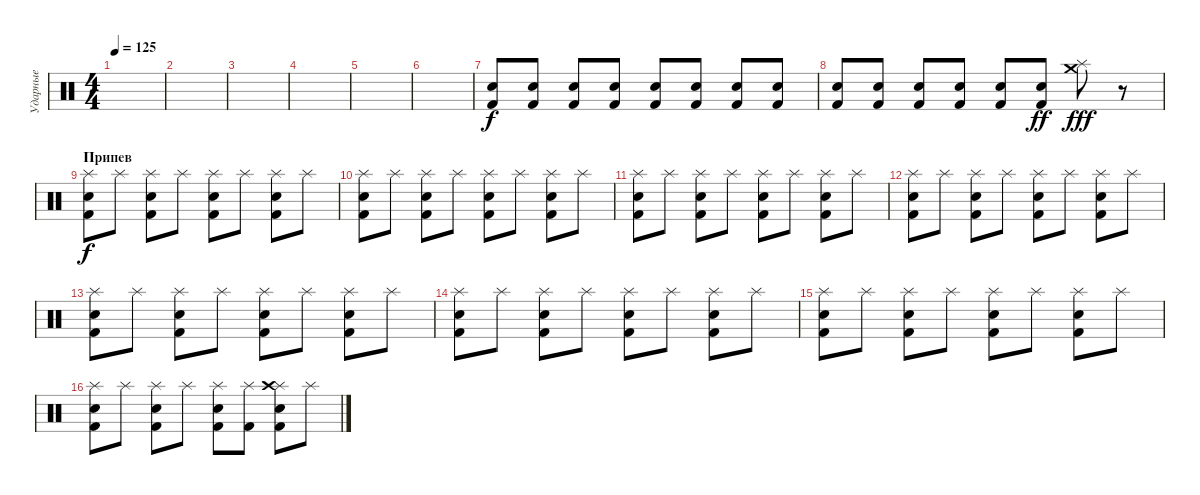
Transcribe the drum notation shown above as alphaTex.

\track ("Ударные" "Ударные") {instrument percussion}
\staff {score}
\articulation defaults
\ts (4 4)
\tempo 125
\clef neutral
\ks c
|
|
|
|
|
|
("Snare (hit) 2" "Kick (hit) 2").8{volume 16} ("Snare (hit) 2" "Kick (hit) 2").8 ("Snare (hit) 2" "Kick (hit) 2").8 ("Snare (hit) 2" "Kick (hit) 2").8 ("Snare (hit) 2" "Kick (hit) 2").8 ("Snare (hit) 2" "Kick (hit) 2").8 ("Snare (hit) 2" "Kick (hit) 2").8 ("Snare (hit) 2" "Kick (hit) 2").8 |
("Snare (hit) 2" "Kick (hit) 2").8 ("Snare (hit) 2" "Kick (hit) 2").8 ("Snare (hit) 2" "Kick (hit) 2").8 ("Snare (hit) 2" "Kick (hit) 2").8 ("Snare (hit) 2" "Kick (hit) 2").8 ("Snare (hit) 2" "Kick (hit) 2").8{dy ff} ("Crash medium (hit)" "Splash (hit)").8{dy fff} r.8 |
\section ("" "Припев")
("Snare (hit) 2" "Splash (hit)" "Kick (hit) 2").8{dy f} "Splash (hit)".8 ("Electric Snare (hit)" "Splash (hit)" "Kick (hit) 2").8 "Splash (hit)".8 ("Snare (hit) 2" "Splash (hit)" "Kick (hit) 2").8 "Splash (hit)".8 ("Electric Snare (hit)" "Splash (hit)" "Kick (hit) 2").8 "Splash (hit)".8 |
("Snare (hit) 2" "Splash (hit)" "Kick (hit) 2").8 "Splash (hit)".8 ("Electric Snare (hit)" "Splash (hit)" "Kick (hit) 2").8 "Splash (hit)".8 ("Snare (hit) 2" "Splash (hit)" "Kick (hit) 2").8 "Splash (hit)".8 ("Electric Snare (hit)" "Splash (hit)" "Kick (hit) 2").8 "Splash (hit)".8 |
("Snare (hit) 2" "Splash (hit)" "Kick (hit) 2").8 "Splash (hit)".8 ("Electric Snare (hit)" "Splash (hit)" "Kick (hit) 2").8 "Splash (hit)".8 ("Snare (hit) 2" "Splash (hit)" "Kick (hit) 2").8 "Splash (hit)".8 ("Electric Snare (hit)" "Splash (hit)" "Kick (hit) 2").8 "Splash (hit)".8 |
("Snare (hit) 2" "Splash (hit)" "Kick (hit) 2").8 "Splash (hit)".8 ("Electric Snare (hit)" "Splash (hit)" "Kick (hit) 2").8 "Splash (hit)".8 ("Snare (hit) 2" "Splash (hit)" "Kick (hit) 2").8 "Splash (hit)".8 ("Electric Snare (hit)" "Splash (hit)" "Kick (hit) 2").8 "Splash (hit)".8 |
("Snare (hit) 2" "Splash (hit)" "Kick (hit) 2").8 "Splash (hit)".8 ("Electric Snare (hit)" "Splash (hit)" "Kick (hit) 2").8 "Splash (hit)".8 ("Snare (hit) 2" "Splash (hit)" "Kick (hit) 2").8 "Splash (hit)".8 ("Electric Snare (hit)" "Splash (hit)" "Kick (hit) 2").8 "Splash (hit)".8 |
("Snare (hit) 2" "Splash (hit)" "Kick (hit) 2").8 "Splash (hit)".8 ("Electric Snare (hit)" "Splash (hit)" "Kick (hit) 2").8 "Splash (hit)".8 ("Snare (hit) 2" "Splash (hit)" "Kick (hit) 2").8 "Splash (hit)".8 ("Electric Snare (hit)" "Splash (hit)" "Kick (hit) 2").8 "Splash (hit)".8 |
("Snare (hit) 2" "Splash (hit)" "Kick (hit) 2").8 "Splash (hit)".8 ("Electric Snare (hit)" "Splash (hit)" "Kick (hit) 2").8 "Splash (hit)".8 ("Snare (hit) 2" "Splash (hit)" "Kick (hit) 2").8 "Splash (hit)".8 ("Electric Snare (hit)" "Splash (hit)" "Kick (hit) 2").8 "Splash (hit)".8 |
("Snare (hit) 2" "Splash (hit)" "Kick (hit) 2").8 "Splash (hit)".8 ("Electric Snare (hit)" "Splash (hit)" "Kick (hit) 2").8 "Splash (hit)".8 ("Snare (hit) 2" "Splash (hit)" "Kick (hit) 2").8 ("Splash (hit)" "Kick (hit) 2").8 ("Electric Snare (hit)" "Splash (hit)" "Crash high (hit)" "Kick (hit) 2").8 "Splash (hit)".8
